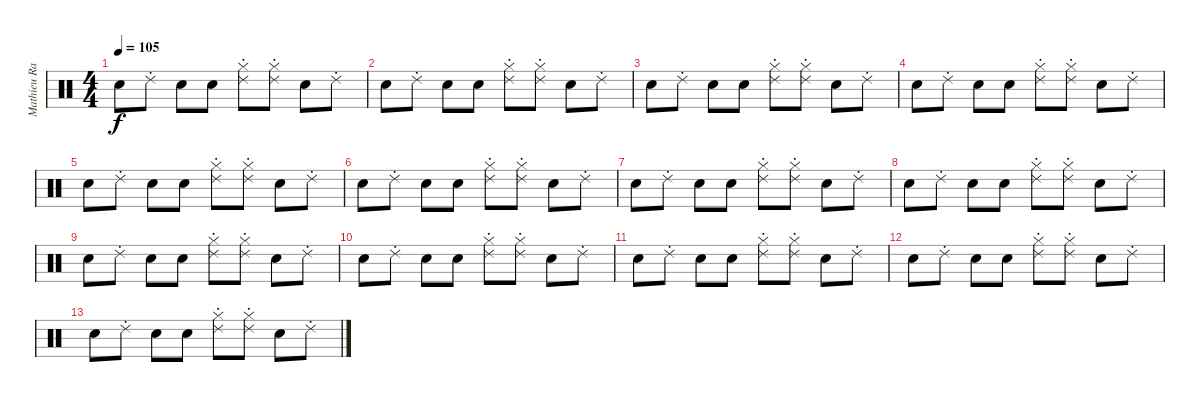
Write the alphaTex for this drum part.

\track ("Mathieu Rabaté (batterie)" "Mathieu Ra") {instrument percussion}
\staff {score}
\articulation defaults
\ts (4 4)
\tempo 105
\clef neutral
\ks c "Snare (hit) 2".8{dy f} "Ride (choke) 2".8 "Electric Snare (hit)".8 "Electric Snare (hit)".8
("Hi-Hat (closed)" "Ride (choke) 2").8 ("Hi-Hat (closed)" "Ride (choke) 2").8 "Electric Snare (hit)".8 "Ride (choke) 2".8 |
"Snare (hit) 2".8 "Ride (choke) 2".8 "Electric Snare (hit)".8 "Electric Snare (hit)".8 ("Hi-Hat (closed)" "Ride (choke) 2").8 ("Hi-Hat (closed)" "Ride (choke) 2").8 "Electric Snare (hit)".8 "Ride (choke) 2".8 |
"Snare (hit) 2".8 "Ride (choke) 2".8 "Electric Snare (hit)".8 "Electric Snare (hit)".8 ("Hi-Hat (closed)" "Ride (choke) 2").8 ("Hi-Hat (closed)" "Ride (choke) 2").8 "Electric Snare (hit)".8 "Ride (choke) 2".8 |
"Snare (hit) 2".8 "Ride (choke) 2".8 "Electric Snare (hit)".8 "Electric Snare (hit)".8 ("Hi-Hat (closed)" "Ride (choke) 2").8 ("Hi-Hat (closed)" "Ride (choke) 2").8 "Electric Snare (hit)".8 "Ride (choke) 2".8 |
"Snare (hit) 2".8 "Ride (choke) 2".8 "Electric Snare (hit)".8 "Electric Snare (hit)".8 ("Hi-Hat (closed)" "Ride (choke) 2").8 ("Hi-Hat (closed)" "Ride (choke) 2").8 "Electric Snare (hit)".8 "Ride (choke) 2".8 |
"Snare (hit) 2".8 "Ride (choke) 2".8 "Electric Snare (hit)".8 "Electric Snare (hit)".8 ("Hi-Hat (closed)" "Ride (choke) 2").8 ("Hi-Hat (closed)" "Ride (choke) 2").8 "Electric Snare (hit)".8 "Ride (choke) 2".8 |
"Snare (hit) 2".8 "Ride (choke) 2".8 "Electric Snare (hit)".8 "Electric Snare (hit)".8 ("Hi-Hat (closed)" "Ride (choke) 2").8 ("Hi-Hat (closed)" "Ride (choke) 2").8 "Electric Snare (hit)".8 "Ride (choke) 2".8 |
"Snare (hit) 2".8 "Ride (choke) 2".8 "Electric Snare (hit)".8 "Electric Snare (hit)".8 ("Hi-Hat (closed)" "Ride (choke) 2").8 ("Hi-Hat (closed)" "Ride (choke) 2").8 "Electric Snare (hit)".8 "Ride (choke) 2".8 |
"Snare (hit) 2".8 "Ride (choke) 2".8 "Electric Snare (hit)".8 "Electric Snare (hit)".8 ("Hi-Hat (closed)" "Ride (choke) 2").8 ("Hi-Hat (closed)" "Ride (choke) 2").8 "Electric Snare (hit)".8 "Ride (choke) 2".8 |
"Snare (hit) 2".8 "Ride (choke) 2".8 "Electric Snare (hit)".8 "Electric Snare (hit)".8 ("Hi-Hat (closed)" "Ride (choke) 2").8 ("Hi-Hat (closed)" "Ride (choke) 2").8 "Electric Snare (hit)".8 "Ride (choke) 2".8 |
"Snare (hit) 2".8 "Ride (choke) 2".8 "Electric Snare (hit)".8 "Electric Snare (hit)".8 ("Hi-Hat (closed)" "Ride (choke) 2").8 ("Hi-Hat (closed)" "Ride (choke) 2").8 "Electric Snare (hit)".8 "Ride (choke) 2".8 |
"Snare (hit) 2".8 "Ride (choke) 2".8 "Electric Snare (hit)".8 "Electric Snare (hit)".8 ("Hi-Hat (closed)" "Ride (choke) 2").8 ("Hi-Hat (closed)" "Ride (choke) 2").8 "Electric Snare (hit)".8 "Ride (choke) 2".8 |
"Snare (hit) 2".8 "Ride (choke) 2".8 "Electric Snare (hit)".8 "Electric Snare (hit)".8 ("Hi-Hat (closed)" "Ride (choke) 2").8 ("Hi-Hat (closed)" "Ride (choke) 2").8 "Electric Snare (hit)".8 "Ride (choke) 2".8
